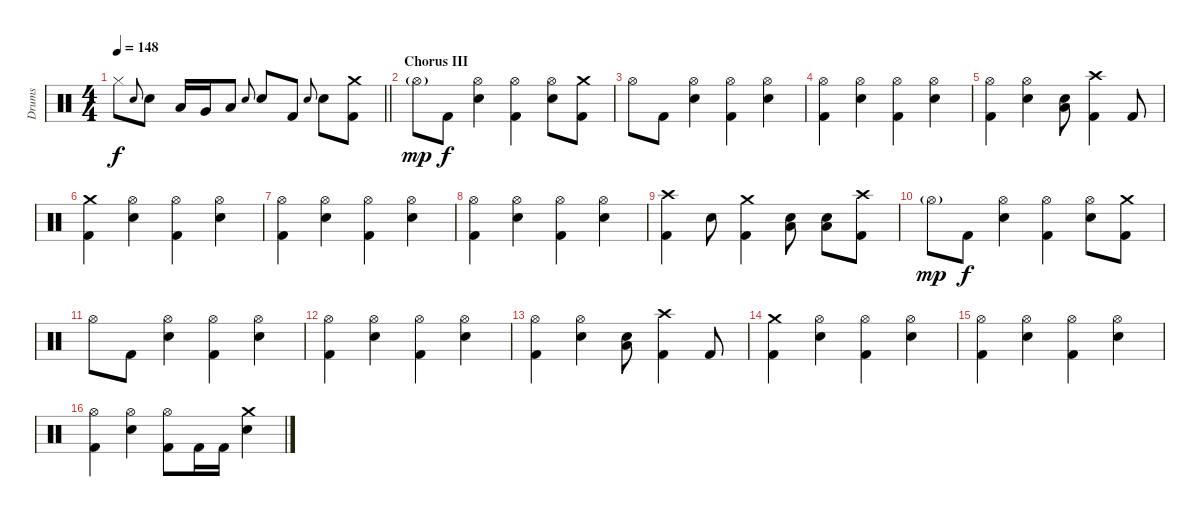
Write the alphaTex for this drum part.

\track ("Drums" "Drums") {instrument percussion}
\staff {score}
\articulation defaults
\ts (4 4)
\tempo 148
\clef neutral
\barLineRight lightlight
\ks c "Hi-Hat (closed)".8{dy f} "Electric Snare (hit)".8{gr onbeat} "Electric Snare (hit)".8 "Low Tom (hit)".16 "Very Low Tom (hit)".16 "Low Floor Tom (hit)".8 "Electric Snare (hit)".8{gr onbeat} "Electric Snare (hit)".8 "Kick (hit) 2".8 "Electric Snare (hit)".8{gr onbeat} "Electric Snare (hit)".8
("Crash medium (hit)" "Kick (hit) 2").8 |
\section ("" "Chorus III")
"Hi-Hat (open)"{g}.8{dy mp} "Kick (hit) 2".8{dy f} ("Hi-Hat (open)" "Electric Snare (hit)").4 ("Hi-Hat (open)" "Kick (hit) 2").4 ("Hi-Hat (open)" "Electric Snare (hit)").8 ("Crash medium (hit)" "Kick (hit) 2").8 |
"Hi-Hat (open)".8 "Kick (hit) 2".8 ("Hi-Hat (open)" "Electric Snare (hit)").4 ("Hi-Hat (open)" "Kick (hit) 2").4 ("Hi-Hat (open)" "Electric Snare (hit)").4 |
("Hi-Hat (open)" "Kick (hit) 2").4 ("Hi-Hat (open)" "Electric Snare (hit)").4 ("Hi-Hat (open)" "Kick (hit) 2").4 ("Hi-Hat (open)" "Electric Snare (hit)").4 |
("Hi-Hat (open)" "Kick (hit) 2").4 ("Hi-Hat (open)" "Electric Snare (hit)").4 ("Low Tom (hit)" "Electric Snare (hit)").8 ("Crash high (hit)" "Kick (hit) 2").4 "Kick (hit) 2".8 |
("Crash medium (hit)" "Kick (hit) 2").4 ("Hi-Hat (open)" "Electric Snare (hit)").4 ("Hi-Hat (open)" "Kick (hit) 2").4 ("Hi-Hat (open)" "Electric Snare (hit)").4 |
("Hi-Hat (open)" "Kick (hit) 2").4 ("Hi-Hat (open)" "Electric Snare (hit)").4 ("Hi-Hat (open)" "Kick (hit) 2").4 ("Hi-Hat (open)" "Electric Snare (hit)").4 |
("Hi-Hat (open)" "Kick (hit) 2").4 ("Hi-Hat (open)" "Electric Snare (hit)").4 ("Hi-Hat (open)" "Kick (hit) 2").4 ("Hi-Hat (open)" "Electric Snare (hit)").4 |
("Crash high (hit)" "Kick (hit) 2").4 "Electric Snare (hit)".8 ("Crash medium (hit)" "Kick (hit) 2").4 ("Electric Snare (hit)" "Low Floor Tom (hit)").8 ("Electric Snare (hit)" "Low Floor Tom (hit)").8 ("Crash high (hit)" "Kick (hit) 2").8 |
"Hi-Hat (open)"{g}.8{dy mp} "Kick (hit) 2".8{dy f} ("Hi-Hat (open)" "Electric Snare (hit)").4 ("Hi-Hat (open)" "Kick (hit) 2").4 ("Hi-Hat (open)" "Electric Snare (hit)").8 ("Crash medium (hit)" "Kick (hit) 2").8 |
"Hi-Hat (open)".8 "Kick (hit) 2".8 ("Hi-Hat (open)" "Electric Snare (hit)").4 ("Hi-Hat (open)" "Kick (hit) 2").4 ("Hi-Hat (open)" "Electric Snare (hit)").4 |
("Hi-Hat (open)" "Kick (hit) 2").4 ("Hi-Hat (open)" "Electric Snare (hit)").4 ("Hi-Hat (open)" "Kick (hit) 2").4 ("Hi-Hat (open)" "Electric Snare (hit)").4 |
("Hi-Hat (open)" "Kick (hit) 2").4 ("Hi-Hat (open)" "Electric Snare (hit)").4 ("Low Tom (hit)" "Electric Snare (hit)").8 ("Crash high (hit)" "Kick (hit) 2").4 "Kick (hit) 2".8 |
("Crash medium (hit)" "Kick (hit) 2").4 ("Hi-Hat (open)" "Electric Snare (hit)").4 ("Hi-Hat (open)" "Kick (hit) 2").4 ("Hi-Hat (open)" "Electric Snare (hit)").4 |
("Hi-Hat (open)" "Kick (hit) 2").4 ("Hi-Hat (open)" "Electric Snare (hit)").4 ("Hi-Hat (open)" "Kick (hit) 2").4 ("Hi-Hat (open)" "Electric Snare (hit)").4 |
("Hi-Hat (open)" "Kick (hit) 2").4 ("Hi-Hat (open)" "Electric Snare (hit)").4 ("Hi-Hat (open)" "Kick (hit) 2").8 "Kick (hit) 2".16 "Kick (hit) 2".16 ("Crash medium (hit)" "Electric Snare (hit)").4
